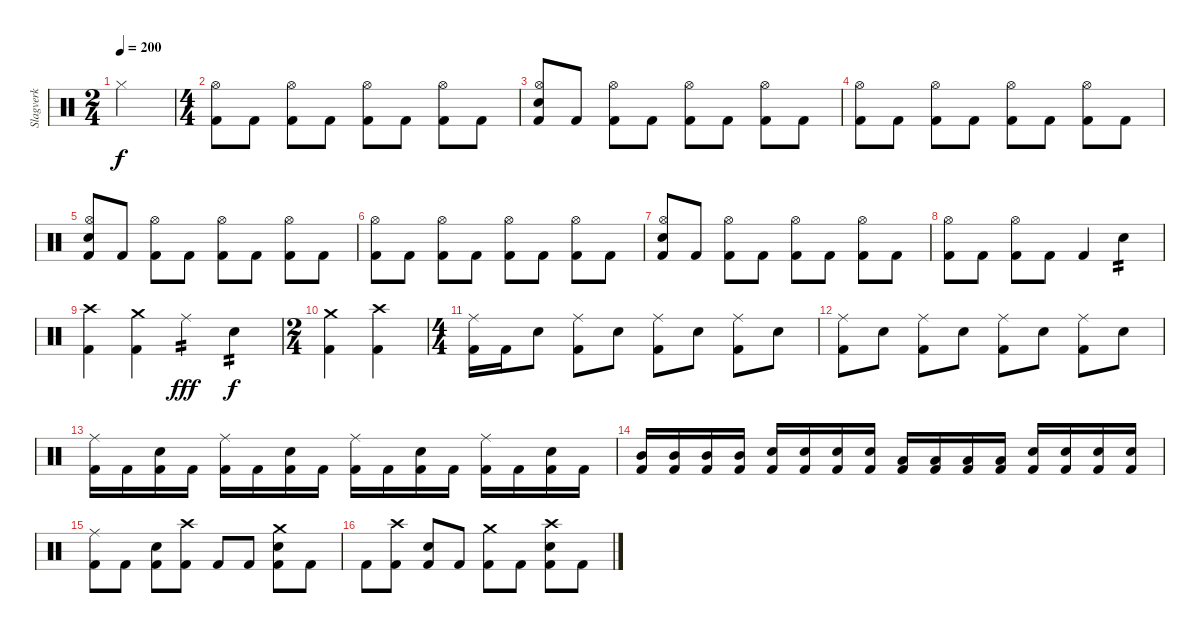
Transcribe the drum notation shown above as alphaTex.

\track ("Slagverk" "Slagverk") {instrument percussion}
\staff {score}
\articulation defaults
\ts (2 4)
\tempo 200
\clef neutral
\ks c "Hi-Hat (closed)".2{dy f}
|
\ts (4 4)
("Kick (hit) 2" "Hi-Hat (open)").8 "Kick (hit) 2".8 ("Kick (hit) 2" "Hi-Hat (open)").8 "Kick (hit) 2".8 ("Kick (hit) 2" "Hi-Hat (open)").8 "Kick (hit) 2".8 ("Kick (hit) 2" "Hi-Hat (open)").8 "Kick (hit) 2".8 |
("Kick (hit) 2" "Snare (hit) 2" "Hi-Hat (open)").8 "Kick (hit) 2".8 ("Kick (hit) 2" "Hi-Hat (open)").8 "Kick (hit) 2".8 ("Kick (hit) 2" "Hi-Hat (open)").8 "Kick (hit) 2".8 ("Kick (hit) 2" "Hi-Hat (open)").8 "Kick (hit) 2".8 |
("Kick (hit) 2" "Hi-Hat (open)").8 "Kick (hit) 2".8 ("Kick (hit) 2" "Hi-Hat (open)").8 "Kick (hit) 2".8 ("Kick (hit) 2" "Hi-Hat (open)").8 "Kick (hit) 2".8 ("Kick (hit) 2" "Hi-Hat (open)").8 "Kick (hit) 2".8 |
("Kick (hit) 2" "Snare (hit) 2" "Hi-Hat (open)").8 "Kick (hit) 2".8 ("Kick (hit) 2" "Hi-Hat (open)").8 "Kick (hit) 2".8 ("Kick (hit) 2" "Hi-Hat (open)").8 "Kick (hit) 2".8 ("Kick (hit) 2" "Hi-Hat (open)").8 "Kick (hit) 2".8 |
("Kick (hit) 2" "Hi-Hat (open)").8 "Kick (hit) 2".8 ("Kick (hit) 2" "Hi-Hat (open)").8 "Kick (hit) 2".8 ("Kick (hit) 2" "Hi-Hat (open)").8 "Kick (hit) 2".8 ("Kick (hit) 2" "Hi-Hat (open)").8 "Kick (hit) 2".8 |
("Kick (hit) 2" "Snare (hit) 2" "Hi-Hat (open)").8 "Kick (hit) 2".8 ("Kick (hit) 2" "Hi-Hat (open)").8 "Kick (hit) 2".8 ("Kick (hit) 2" "Hi-Hat (open)").8 "Kick (hit) 2".8 ("Kick (hit) 2" "Hi-Hat (open)").8 "Kick (hit) 2".8 |
("Kick (hit) 2" "Hi-Hat (open)").8 "Kick (hit) 2".8 ("Kick (hit) 2" "Hi-Hat (open)").8 "Kick (hit) 2".8 "Kick (hit) 2".4 "Snare (hit) 2".4{tp 2} |
("Kick (hit) 2" "Crash high (hit)").4 ("Kick (hit) 2" "Crash medium (hit)").4 "Ride (middle)".4{tp 2 dy fff} "Snare (hit) 2".4{tp 2 dy f} |
\ts (2 4)
("Kick (hit) 2" "Crash medium (hit)").4 ("Kick (hit) 2" "Crash high (hit)").4 |
\ts (4 4)
("Ride (middle)" "Kick (hit) 2").16 "Kick (hit) 2".16 "Snare (hit) 2".8 ("Ride (middle)" "Kick (hit) 2").8 "Snare (hit) 2".8 ("Ride (middle)" "Kick (hit) 2").8 "Snare (hit) 2".8 ("Ride (middle)" "Kick (hit) 2").8 "Snare (hit) 2".8 |
("Ride (middle)" "Kick (hit) 2").8 "Snare (hit) 2".8 ("Ride (middle)" "Kick (hit) 2").8 "Snare (hit) 2".8 ("Ride (middle)" "Kick (hit) 2").8 "Snare (hit) 2".8 ("Ride (middle)" "Kick (hit) 2").8 "Snare (hit) 2".8 |
("Ride (middle)" "Kick (hit) 2").16 "Kick (hit) 2".16 ("Snare (hit) 2" "Kick (hit) 2").16 "Kick (hit) 2".16 ("Ride (middle)" "Kick (hit) 2").16 "Kick (hit) 2".16 ("Snare (hit) 2" "Kick (hit) 2").16 "Kick (hit) 2".16 ("Ride (middle)" "Kick (hit) 2").16 "Kick (hit) 2".16 ("Snare (hit) 2" "Kick (hit) 2").16 "Kick (hit) 2".16 ("Ride (middle)" "Kick (hit) 2").16 "Kick (hit) 2".16 ("Snare (hit) 2" "Kick (hit) 2").16 "Kick (hit) 2".16 |
("Mid Tom (hit)" "Kick (hit) 2").16 ("Mid Tom (hit)" "Kick (hit) 2").16 ("Mid Tom (hit)" "Kick (hit) 2").16 ("Mid Tom (hit)" "Kick (hit) 2").16 ("Snare (hit) 2" "Kick (hit) 2").16 ("Snare (hit) 2" "Kick (hit) 2").16 ("Snare (hit) 2" "Kick (hit) 2").16 ("Snare (hit) 2" "Kick (hit) 2").16 ("Low Tom (hit)" "Kick (hit) 2").16 ("Low Tom (hit)" "Kick (hit) 2").16 ("Low Tom (hit)" "Kick (hit) 2").16 ("Low Tom (hit)" "Kick (hit) 2").16 ("Snare (hit) 2" "Kick (hit) 2").16 ("Snare (hit) 2" "Kick (hit) 2").16 ("Snare (hit) 2" "Kick (hit) 2").16 ("Snare (hit) 2" "Kick (hit) 2").16 |
("Kick (hit) 2" "Ride (middle)").8 "Kick (hit) 2".8 ("Snare (hit) 2" "Kick (hit) 2").8 ("Kick (hit) 2" "Crash high (hit)").8 "Kick (hit) 2".8 "Kick (hit) 2".8 ("Snare (hit) 2" "Kick (hit) 2" "Crash medium (hit)").8 "Kick (hit) 2".8 |
"Kick (hit) 2".8 ("Kick (hit) 2" "Crash high (hit)").8 ("Snare (hit) 2" "Kick (hit) 2").8 "Kick (hit) 2".8 ("Kick (hit) 2" "Crash medium (hit)").8 "Kick (hit) 2".8 ("Snare (hit) 2" "Kick (hit) 2" "Crash high (hit)").8 "Kick (hit) 2".8
